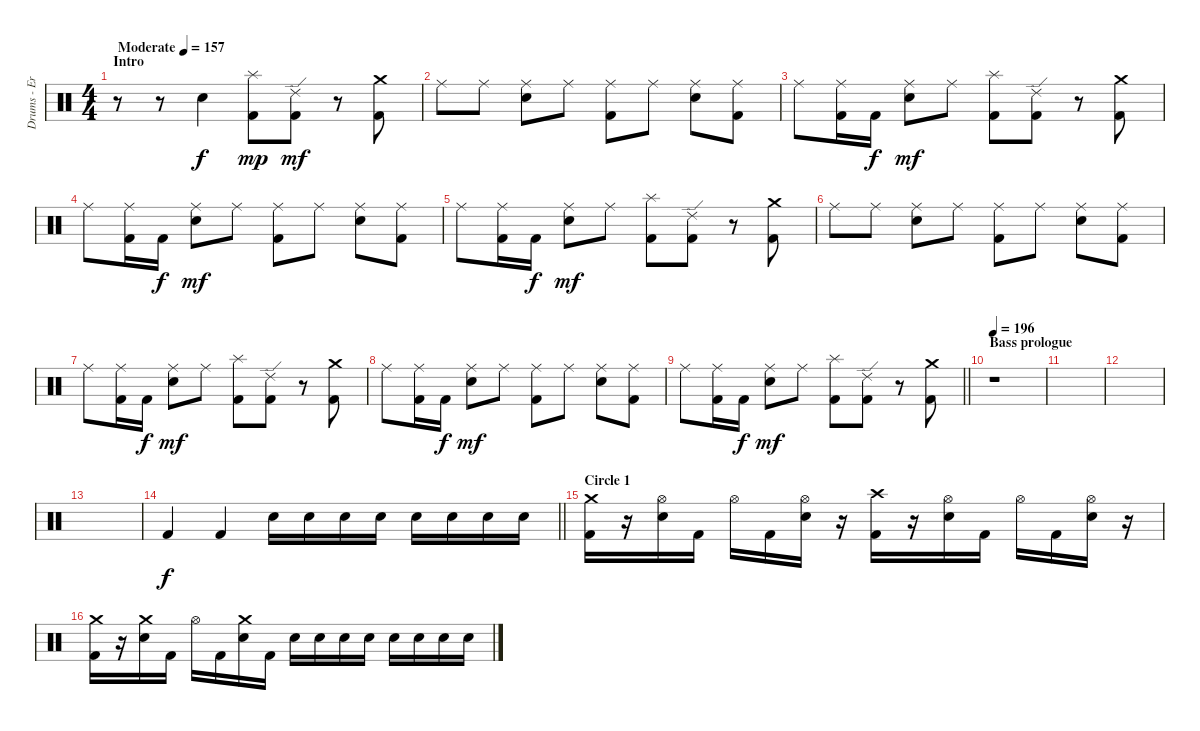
\track ("Drums - Erik Sandin" "Drums - Er") {instrument percussion}
\staff {score}
\articulation defaults
\ts (4 4)
\section ("" "Intro")
\tempo (157 "Moderate")
\clef neutral
\ks c
r.8{dy f} r.8 "Electric Snare (hit)".4 ("Splash (hit)" "Kick (hit) 2").8{dy mp} ("Ride (edge) 2" "Kick (hit) 2").8{dy mf} r.8 ("Crash medium (hit)" "Kick (hit) 2").8 |
"Ride (middle)".8 "Ride (middle)".8 ("Ride (middle)" "Electric Snare (hit)").8 "Ride (middle)".8 ("Ride (middle)" "Kick (hit) 2").8 "Ride (middle)".8 ("Ride (middle)" "Electric Snare (hit)").8 ("Ride (middle)" "Kick (hit) 2").8 |
"Ride (middle)".8 ("Ride (middle)" "Kick (hit) 2").16 "Kick (hit) 2".16{dy f} ("Ride (middle)" "Electric Snare (hit)").8{dy mf} "Ride (middle)".8 ("Splash (hit)" "Kick (hit) 2").8 ("Ride (edge) 2" "Kick (hit) 2").8 r.8 ("Crash medium (hit)" "Kick (hit) 2").8 |
"Ride (middle)".8 ("Ride (middle)" "Kick (hit) 2").16 "Kick (hit) 2".16{dy f} ("Ride (middle)" "Electric Snare (hit)").8{dy mf} "Ride (middle)".8 ("Ride (middle)" "Kick (hit) 2").8 "Ride (middle)".8 ("Ride (middle)" "Electric Snare (hit)").8 ("Ride (middle)" "Kick (hit) 2").8 |
"Ride (middle)".8 ("Ride (middle)" "Kick (hit) 2").16 "Kick (hit) 2".16{dy f} ("Ride (middle)" "Electric Snare (hit)").8{dy mf} "Ride (middle)".8 ("Splash (hit)" "Kick (hit) 2").8 ("Ride (edge) 2" "Kick (hit) 2").8 r.8 ("Crash medium (hit)" "Kick (hit) 2").8 |
"Ride (middle)".8 "Ride (middle)".8 ("Ride (middle)" "Electric Snare (hit)").8 "Ride (middle)".8 ("Ride (middle)" "Kick (hit) 2").8 "Ride (middle)".8 ("Ride (middle)" "Electric Snare (hit)").8 ("Ride (middle)" "Kick (hit) 2").8 |
"Ride (middle)".8 ("Ride (middle)" "Kick (hit) 2").16 "Kick (hit) 2".16{dy f} ("Ride (middle)" "Electric Snare (hit)").8{dy mf} "Ride (middle)".8 ("Splash (hit)" "Kick (hit) 2").8 ("Ride (edge) 2" "Kick (hit) 2").8 r.8 ("Crash medium (hit)" "Kick (hit) 2").8 |
"Ride (middle)".8 ("Ride (middle)" "Kick (hit) 2").16 "Kick (hit) 2".16{dy f} ("Ride (middle)" "Electric Snare (hit)").8{dy mf} "Ride (middle)".8 ("Ride (middle)" "Kick (hit) 2").8 "Ride (middle)".8 ("Ride (middle)" "Electric Snare (hit)").8 ("Ride (middle)" "Kick (hit) 2").8 |
\barLineRight lightlight "Ride (middle)".8
("Ride (middle)" "Kick (hit) 2").16 "Kick (hit) 2".16{dy f} ("Ride (middle)" "Electric Snare (hit)").8{dy mf} "Ride (middle)".8 ("Splash (hit)" "Kick (hit) 2").8 ("Ride (edge) 2" "Kick (hit) 2").8 r.8 ("Crash medium (hit)" "Kick (hit) 2").8 |
\section ("" "Bass prologue")
\tempo 196
r.1 |
|
|
|
\barLineRight lightlight "Kick (hit) 2".4{dy f} "Kick (hit) 2".4 "Electric Snare (hit)".16 "Electric Snare (hit)".16 "Electric Snare (hit)".16 "Electric Snare (hit)".16 "Electric Snare (hit)".16 "Electric Snare (hit)".16 "Electric Snare (hit)".16 "Electric Snare (hit)".16
|
\section ("" "Circle 1")
("Crash medium (hit)" "Kick (hit) 2").16 r.16 ("Hi-Hat (open)" "Electric Snare (hit)").16 "Kick (hit) 2".16 "Hi-Hat (open)".16 "Kick (hit) 2".16 ("Hi-Hat (open)" "Electric Snare (hit)").16 r.16 ("Crash high (hit)" "Kick (hit) 2").16 r.16 ("Hi-Hat (open)" "Electric Snare (hit)").16 "Kick (hit) 2".16 "Hi-Hat (open)".16 "Kick (hit) 2".16 ("Hi-Hat (open)" "Electric Snare (hit)").16 r.16 |
("Crash medium (hit)" "Kick (hit) 2").16 r.16 ("Crash medium (hit)" "Electric Snare (hit)").16 "Kick (hit) 2".16 "Hi-Hat (open)".16 "Kick (hit) 2".16 ("Crash medium (hit)" "Electric Snare (hit)").16 "Kick (hit) 2".16 "Electric Snare (hit)".16 "Electric Snare (hit)".16 "Electric Snare (hit)".16 "Electric Snare (hit)".16 "Electric Snare (hit)".16 "Electric Snare (hit)".16 "Electric Snare (hit)".16 "Electric Snare (hit)".16
